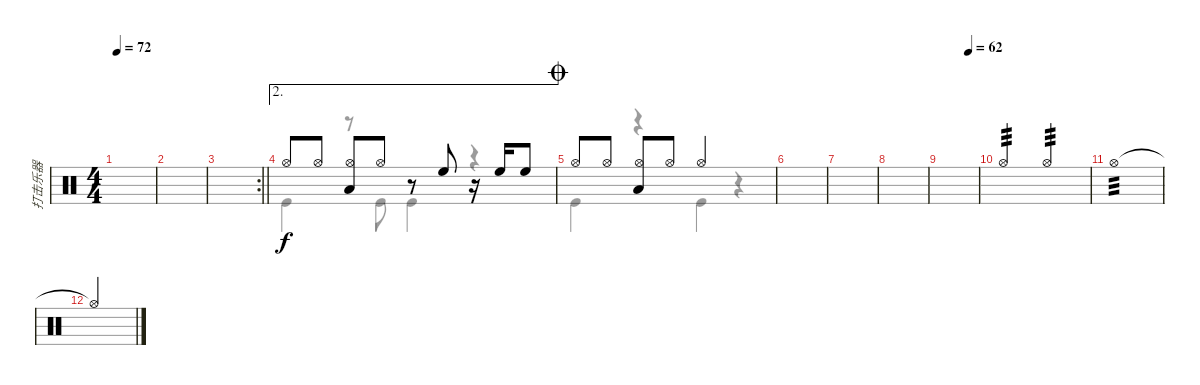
\track ("打击乐器" "打击乐器") {instrument percussion}
\staff {score}
\articulation defaults
\voice
\ts (4 4)
\tempo 72
\clef neutral
\ks c
|
|
\rc 2
\barLineRight lightlight
|
\ae 2 "Hi-Hat (open)".8 "Hi-Hat (open)".8
("Hi-Hat (open)" "Low Tom (hit)").8 "Hi-Hat (open)".8 r.8 "High Floor Tom (hit)".8 r.16 "High Floor Tom (hit)".16 "High Floor Tom (hit)".8 |
\jump coda "Hi-Hat (open)".8 "Hi-Hat (open)".8
("Hi-Hat (open)" "Low Tom (hit)").8 "Hi-Hat (open)".8 "Hi-Hat (open)".4 |
|
|
|
\tempo (62 0.75)
|
"Hi-Hat (open)".2{tp 3 beam Up} "Hi-Hat (open)".2{tp 3 beam Up} |
"Hi-Hat (open)".1{tp 3} |
"Hi-Hat (open)"{t}.2{beam Up}
\voice
\clef neutral
\ottava regular
\simile none
\ks c
|
|
\barLineRight lightlight
|
"Kick (hit)".4 r.8 "Kick (hit)".8 "Kick (hit)".4 r.4 |
"Kick (hit)".4 r.4 "Kick (hit)".4 r.4 |
|
|
|
|
|
|
